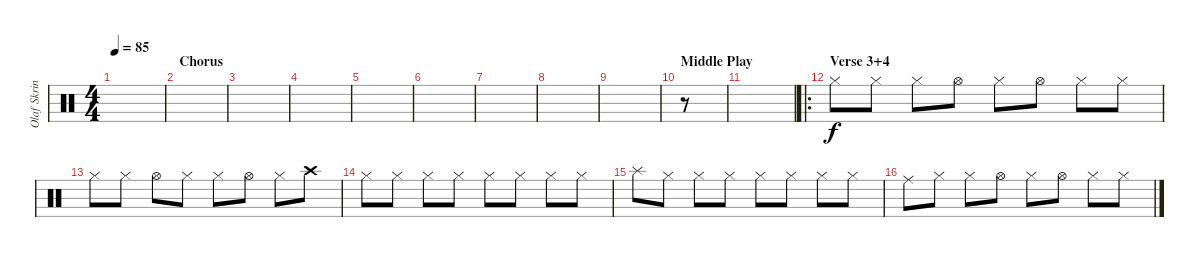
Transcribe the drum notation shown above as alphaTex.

\track ("Olaf Skrinde (Drums)" "Olaf Skrin") {instrument percussion}
\staff {score}
\articulation defaults
\ts (4 4)
\tempo 85
\clef neutral
\ks c
|
\section ("" "Chorus")
|
|
|
|
|
|
|
|
\section ("" "Middle Play")
r.8 |
|
\ro
\section ("" "Verse 3+4")
"Hi-Hat (closed)".8 "Hi-Hat (closed)".8 "Hi-Hat (closed)".8 "Hi-Hat (open)".8 "Hi-Hat (closed)".8 "Hi-Hat (open)".8 "Hi-Hat (closed)".8 "Hi-Hat (closed)".8 |
"Hi-Hat (closed)".8 "Hi-Hat (closed)".8 "Hi-Hat (open)".8 "Hi-Hat (closed)".8 "Hi-Hat (closed)".8 "Hi-Hat (open)".8 "Hi-Hat (closed)".8 "Crash high (hit)".8 |
"Hi-Hat (closed)".8 "Hi-Hat (closed)".8 "Hi-Hat (closed)".8 "Hi-Hat (closed)".8 "Hi-Hat (closed)".8 "Hi-Hat (closed)".8 "Hi-Hat (closed)".8 "Hi-Hat (closed)".8 |
"Splash (hit)".8 "Hi-Hat (closed)".8 "Hi-Hat (closed)".8 "Hi-Hat (closed)".8 "Hi-Hat (closed)".8 "Hi-Hat (closed)".8 "Hi-Hat (closed)".8 "Hi-Hat (closed)".8 |
"Ride (middle)".8 "Hi-Hat (closed)".8 "Hi-Hat (closed)".8 "Hi-Hat (open)".8 "Hi-Hat (closed)".8 "Hi-Hat (open)".8 "Hi-Hat (closed)".8 "Hi-Hat (closed)".8
